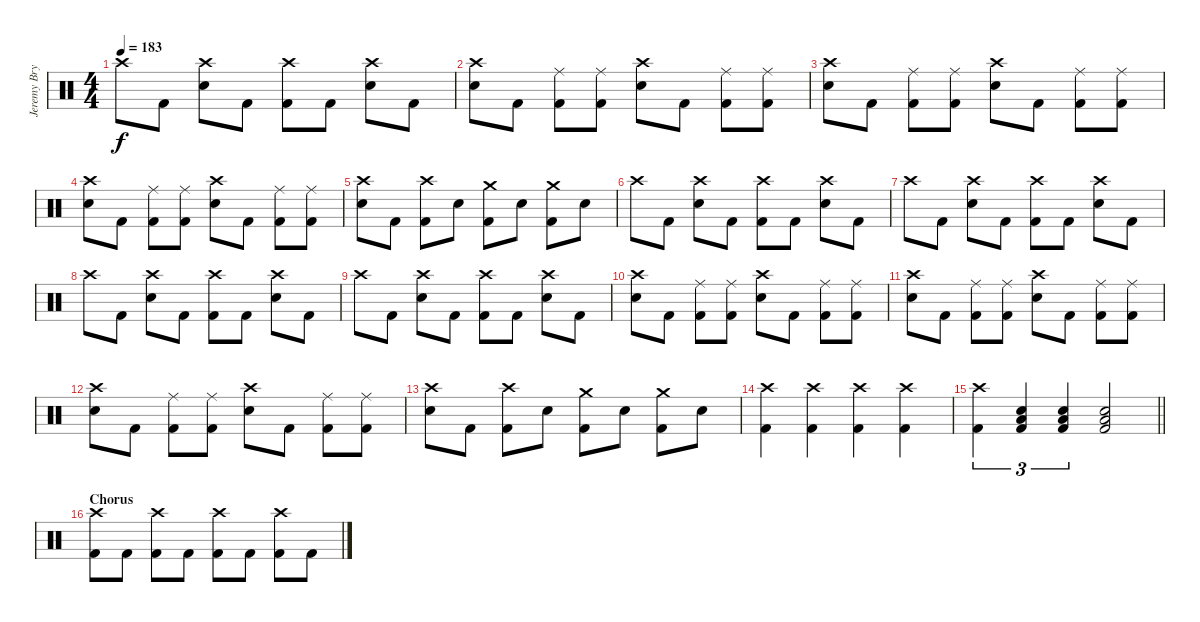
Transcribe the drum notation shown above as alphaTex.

\track ("Jeremy Bryan - Drums" "Jeremy Bry") {instrument percussion}
\staff {score}
\articulation defaults
\ts (4 4)
\tempo 183
\clef neutral
\ks c "Crash high (hit)".8{dy f} "Kick (hit) 2".8
("Crash high (hit)" "Electric Snare (hit)").8 "Kick (hit) 2".8 ("Crash high (hit)" "Kick (hit) 2").8 "Kick (hit) 2".8 ("Crash high (hit)" "Electric Snare (hit)").8 "Kick (hit) 2".8 |
("Crash high (hit)" "Electric Snare (hit)").8 "Kick (hit) 2".8 ("Ride (middle)" "Kick (hit) 2").8 ("Ride (middle)" "Kick (hit) 2").8 ("Crash high (hit)" "Electric Snare (hit)").8 "Kick (hit) 2".8 ("Ride (middle)" "Kick (hit) 2").8 ("Ride (middle)" "Kick (hit) 2").8 |
("Crash high (hit)" "Electric Snare (hit)").8 "Kick (hit) 2".8 ("Ride (middle)" "Kick (hit) 2").8 ("Ride (middle)" "Kick (hit) 2").8 ("Crash high (hit)" "Electric Snare (hit)").8 "Kick (hit) 2".8 ("Ride (middle)" "Kick (hit) 2").8 ("Ride (middle)" "Kick (hit) 2").8 |
("Crash high (hit)" "Electric Snare (hit)").8 "Kick (hit) 2".8 ("Ride (middle)" "Kick (hit) 2").8 ("Ride (middle)" "Kick (hit) 2").8 ("Crash high (hit)" "Electric Snare (hit)").8 "Kick (hit) 2".8 ("Ride (middle)" "Kick (hit) 2").8 ("Ride (middle)" "Kick (hit) 2").8 |
("Crash high (hit)" "Electric Snare (hit)").8 "Kick (hit) 2".8 ("Crash high (hit)" "Kick (hit) 2").8 "Electric Snare (hit)".8 ("Crash medium (hit)" "Kick (hit) 2").8 "Electric Snare (hit)".8 ("Crash medium (hit)" "Kick (hit) 2").8 "Electric Snare (hit)".8 |
"Crash high (hit)".8 "Kick (hit) 2".8 ("Crash high (hit)" "Electric Snare (hit)").8 "Kick (hit) 2".8 ("Crash high (hit)" "Kick (hit) 2").8 "Kick (hit) 2".8 ("Crash high (hit)" "Electric Snare (hit)").8 "Kick (hit) 2".8 |
"Crash high (hit)".8 "Kick (hit) 2".8 ("Crash high (hit)" "Electric Snare (hit)").8 "Kick (hit) 2".8 ("Crash high (hit)" "Kick (hit) 2").8 "Kick (hit) 2".8 ("Crash high (hit)" "Electric Snare (hit)").8 "Kick (hit) 2".8 |
"Crash high (hit)".8 "Kick (hit) 2".8 ("Crash high (hit)" "Electric Snare (hit)").8 "Kick (hit) 2".8 ("Crash high (hit)" "Kick (hit) 2").8 "Kick (hit) 2".8 ("Crash high (hit)" "Electric Snare (hit)").8 "Kick (hit) 2".8 |
"Crash high (hit)".8 "Kick (hit) 2".8 ("Crash high (hit)" "Electric Snare (hit)").8 "Kick (hit) 2".8 ("Crash high (hit)" "Kick (hit) 2").8 "Kick (hit) 2".8 ("Crash high (hit)" "Electric Snare (hit)").8 "Kick (hit) 2".8 |
("Crash high (hit)" "Electric Snare (hit)").8 "Kick (hit) 2".8 ("Ride (middle)" "Kick (hit) 2").8 ("Ride (middle)" "Kick (hit) 2").8 ("Crash high (hit)" "Electric Snare (hit)").8 "Kick (hit) 2".8 ("Ride (middle)" "Kick (hit) 2").8 ("Ride (middle)" "Kick (hit) 2").8 |
("Crash high (hit)" "Electric Snare (hit)").8 "Kick (hit) 2".8 ("Ride (middle)" "Kick (hit) 2").8 ("Ride (middle)" "Kick (hit) 2").8 ("Crash high (hit)" "Electric Snare (hit)").8 "Kick (hit) 2".8 ("Ride (middle)" "Kick (hit) 2").8 ("Ride (middle)" "Kick (hit) 2").8 |
("Crash high (hit)" "Electric Snare (hit)").8 "Kick (hit) 2".8 ("Ride (middle)" "Kick (hit) 2").8 ("Ride (middle)" "Kick (hit) 2").8 ("Crash high (hit)" "Electric Snare (hit)").8 "Kick (hit) 2".8 ("Ride (middle)" "Kick (hit) 2").8 ("Ride (middle)" "Kick (hit) 2").8 |
("Crash high (hit)" "Electric Snare (hit)").8 "Kick (hit) 2".8 ("Crash high (hit)" "Kick (hit) 2").8 "Electric Snare (hit)".8 ("Crash medium (hit)" "Kick (hit) 2").8 "Electric Snare (hit)".8 ("Crash medium (hit)" "Kick (hit) 2").8 "Electric Snare (hit)".8 |
("Crash high (hit)" "Kick (hit) 2").4 ("Crash high (hit)" "Kick (hit) 2").4 ("Crash high (hit)" "Kick (hit) 2").4 ("Crash high (hit)" "Kick (hit) 2").4 |
\barLineRight lightlight
("Crash high (hit)" "Kick (hit) 2").4{tu (3 2)} ("Electric Snare (hit)" "Low Floor Tom (hit)" "Kick (hit) 2").4{tu (3 2)} ("Electric Snare (hit)" "Low Floor Tom (hit)" "Kick (hit) 2").4{tu (3 2)} ("Electric Snare (hit)" "Low Floor Tom (hit)" "Kick (hit) 2").2 |
\section ("" "Chorus")
("Crash high (hit)" "Kick (hit) 2").8 "Kick (hit) 2".8 ("Crash high (hit)" "Kick (hit) 2").8 "Kick (hit) 2".8 ("Crash high (hit)" "Kick (hit) 2").8 "Kick (hit) 2".8 ("Crash high (hit)" "Kick (hit) 2").8 "Kick (hit) 2".8
